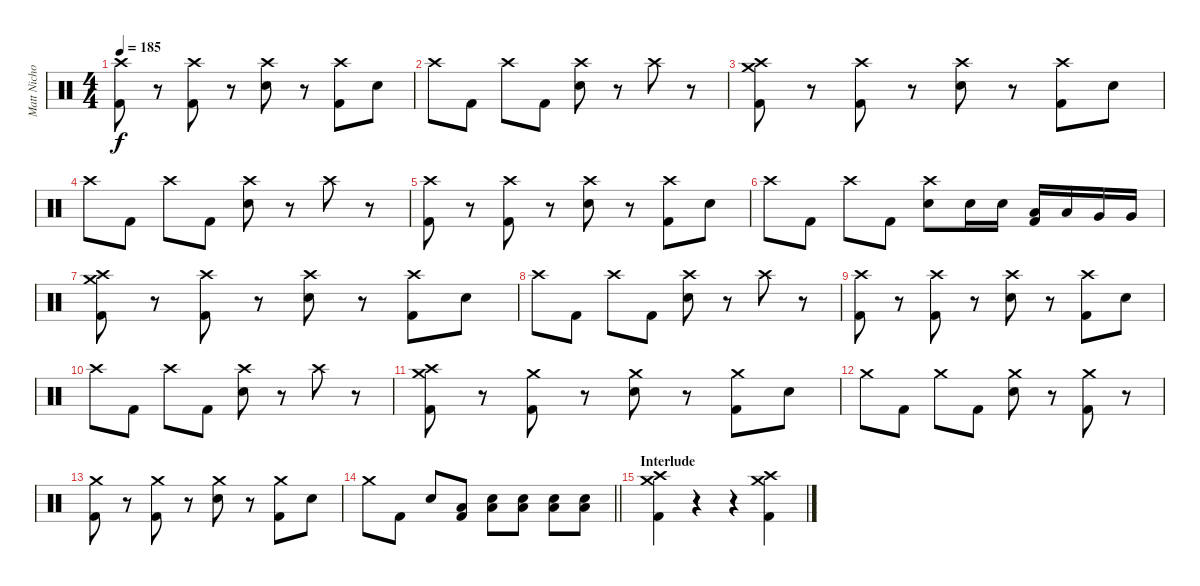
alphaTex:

\track ("Matt Nicholls" "Matt Nicho") {instrument percussion}
\staff {score}
\articulation defaults
\ts (4 4)
\tempo 185
\clef neutral
\ks c
("Crash high (hit)" "Kick (hit) 2").8{dy f} r.8 ("Crash high (hit)" "Kick (hit) 2").8 r.8 ("Crash high (hit)" "Electric Snare (hit)").8 r.8 ("Crash high (hit)" "Kick (hit) 2").8 "Electric Snare (hit)".8 |
"Crash high (hit)".8 "Kick (hit) 2".8 "Crash high (hit)".8 "Kick (hit) 2".8 ("Crash high (hit)" "Electric Snare (hit)").8 r.8 "Crash high (hit)".8 r.8 |
("Crash medium (hit)" "Crash high (hit)" "Kick (hit) 2").8 r.8 ("Crash high (hit)" "Kick (hit) 2").8 r.8 ("Crash high (hit)" "Electric Snare (hit)").8 r.8 ("Crash high (hit)" "Kick (hit) 2").8 "Electric Snare (hit)".8 |
"Crash high (hit)".8 "Kick (hit) 2".8 "Crash high (hit)".8 "Kick (hit) 2".8 ("Crash high (hit)" "Electric Snare (hit)").8 r.8 "Crash high (hit)".8 r.8 |
("Crash high (hit)" "Kick (hit) 2").8 r.8 ("Crash high (hit)" "Kick (hit) 2").8 r.8 ("Crash high (hit)" "Electric Snare (hit)").8 r.8 ("Crash high (hit)" "Kick (hit) 2").8 "Electric Snare (hit)".8 |
"Crash high (hit)".8 "Kick (hit) 2".8 "Crash high (hit)".8 "Kick (hit) 2".8 ("Crash high (hit)" "Electric Snare (hit)").8 "Electric Snare (hit)".16 "Electric Snare (hit)".16 ("Low Tom (hit)" "Kick (hit) 2").16 "Low Tom (hit)".16 "Very Low Tom (hit)".16 "Very Low Tom (hit)".16 |
("Crash medium (hit)" "Crash high (hit)" "Kick (hit) 2").8 r.8 ("Crash high (hit)" "Kick (hit) 2").8 r.8 ("Crash high (hit)" "Electric Snare (hit)").8 r.8 ("Crash high (hit)" "Kick (hit) 2").8 "Electric Snare (hit)".8 |
"Crash high (hit)".8 "Kick (hit) 2".8 "Crash high (hit)".8 "Kick (hit) 2".8 ("Crash high (hit)" "Electric Snare (hit)").8 r.8 "Crash high (hit)".8 r.8 |
("Crash high (hit)" "Kick (hit) 2").8 r.8 ("Crash high (hit)" "Kick (hit) 2").8 r.8 ("Crash high (hit)" "Electric Snare (hit)").8 r.8 ("Crash high (hit)" "Kick (hit) 2").8 "Electric Snare (hit)".8 |
"Crash high (hit)".8 "Kick (hit) 2".8 "Crash high (hit)".8 "Kick (hit) 2".8 ("Crash high (hit)" "Electric Snare (hit)").8 r.8 "Crash high (hit)".8 r.8 |
("Crash medium (hit)" "Crash high (hit)" "Kick (hit) 2").8 r.8 ("Crash medium (hit)" "Kick (hit) 2").8 r.8 ("Crash medium (hit)" "Electric Snare (hit)").8 r.8 ("Crash medium (hit)" "Kick (hit) 2").8 "Electric Snare (hit)".8 |
"Crash medium (hit)".8 "Kick (hit) 2".8 "Crash medium (hit)".8 "Kick (hit) 2".8 ("Crash medium (hit)" "Electric Snare (hit)").8 r.8 ("Crash medium (hit)" "Kick (hit) 2").8 r.8 |
("Crash medium (hit)" "Kick (hit) 2").8 r.8 ("Crash medium (hit)" "Kick (hit) 2").8 r.8 ("Crash medium (hit)" "Electric Snare (hit)").8 r.8 ("Crash medium (hit)" "Kick (hit) 2").8 "Electric Snare (hit)".8 |
\barLineRight lightlight "Crash medium (hit)".8 "Kick (hit) 2".8 "Electric Snare (hit)".8
("Low Tom (hit)" "Kick (hit) 2").8 ("Low Floor Tom (hit)" "Electric Snare (hit)").8 ("Low Floor Tom (hit)" "Electric Snare (hit)").8 ("Low Floor Tom (hit)" "Electric Snare (hit)").8 ("Low Floor Tom (hit)" "Electric Snare (hit)").8 |
\section ("" "Interlude")
("Crash medium (hit)" "Crash high (hit)" "Kick (hit) 2").4 r.4 r.4 ("Crash medium (hit)" "Crash high (hit)" "Kick (hit) 2").4
